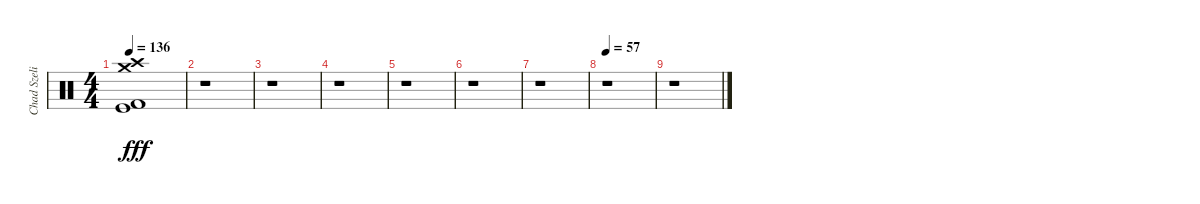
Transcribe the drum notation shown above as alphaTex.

\track ("Chad Szeliga" "Chad Szeli") {instrument percussion}
\staff {score}
\articulation defaults
\ts (4 4)
\tempo 136
\clef neutral
\ks c
("Crash high (hit)" "Kick (hit) 2" "Kick (hit)" "Crash medium (hit)").1{dy fff} |
r.1 |
r.1 |
r.1 |
r.1 |
r.1 |
r.1 |
\tempo 57
r.1 |
r.1
